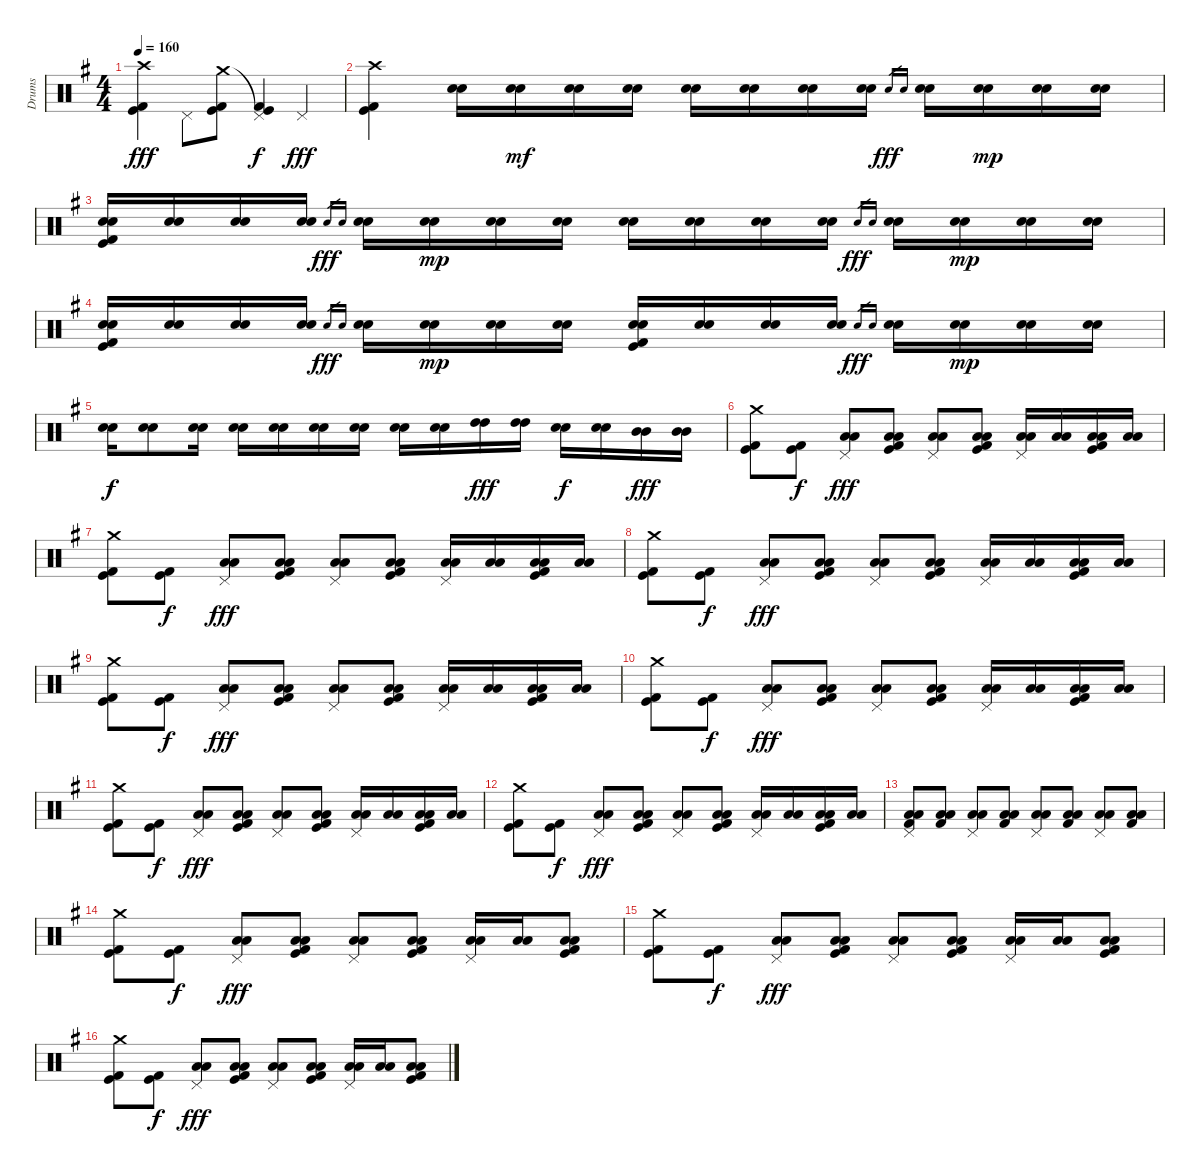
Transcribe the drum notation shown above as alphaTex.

\track ("Drums" "Drums") {instrument percussion}
\staff {score}
\articulation defaults
\ts (4 4)
\tempo 160
\clef neutral
\ks g
("Crash high (hit)" "Kick (hit)" "Kick (hit) 2").4{dy fff} "Pedal Hi-Hat (hit)".8 ("Crash medium (hit)" "Kick (hit)" "Kick (hit) 2").8 ("Pedal Hi-Hat (hit)"{t} "Kick (hit)" "Kick (hit) 2").4{dy f} "Pedal Hi-Hat (hit)".4{dy fff} |
("Crash high (hit)" "Kick (hit)" "Kick (hit) 2").4 ("Electric Snare (hit)" "Snare (hit) 2").16 ("Electric Snare (hit)" "Snare (hit) 2").16{dy mf} ("Electric Snare (hit)" "Snare (hit) 2").16 ("Electric Snare (hit)" "Snare (hit) 2").16 ("Electric Snare (hit)" "Snare (hit) 2").16 ("Electric Snare (hit)" "Snare (hit) 2").16 ("Electric Snare (hit)" "Snare (hit) 2").16 ("Electric Snare (hit)" "Snare (hit) 2").16 "Electric Snare (hit)".16{gr dy fff} "Snare (hit) 2".16{gr} ("Electric Snare (hit)" "Snare (hit) 2").16 ("Electric Snare (hit)" "Snare (hit) 2").16{dy mp} ("Electric Snare (hit)" "Snare (hit) 2").16 ("Electric Snare (hit)" "Snare (hit) 2").16 |
("Electric Snare (hit)" "Snare (hit) 2" "Kick (hit)" "Kick (hit) 2").16 ("Electric Snare (hit)" "Snare (hit) 2").16 ("Electric Snare (hit)" "Snare (hit) 2").16 ("Electric Snare (hit)" "Snare (hit) 2").16 "Electric Snare (hit)".16{gr dy fff} "Snare (hit) 2".16{gr} ("Electric Snare (hit)" "Snare (hit) 2").16 ("Electric Snare (hit)" "Snare (hit) 2").16{dy mp} ("Electric Snare (hit)" "Snare (hit) 2").16 ("Electric Snare (hit)" "Snare (hit) 2").16 ("Electric Snare (hit)" "Snare (hit) 2").16 ("Electric Snare (hit)" "Snare (hit) 2").16 ("Electric Snare (hit)" "Snare (hit) 2").16 ("Electric Snare (hit)" "Snare (hit) 2").16 "Electric Snare (hit)".16{gr dy fff} "Snare (hit) 2".16{gr} ("Electric Snare (hit)" "Snare (hit) 2").16 ("Electric Snare (hit)" "Snare (hit) 2").16{dy mp} ("Electric Snare (hit)" "Snare (hit) 2").16 ("Electric Snare (hit)" "Snare (hit) 2").16 |
("Electric Snare (hit)" "Snare (hit) 2" "Kick (hit)" "Kick (hit) 2").16 ("Electric Snare (hit)" "Snare (hit) 2").16 ("Electric Snare (hit)" "Snare (hit) 2").16 ("Electric Snare (hit)" "Snare (hit) 2").16 "Electric Snare (hit)".16{gr dy fff} "Snare (hit) 2".16{gr} ("Electric Snare (hit)" "Snare (hit) 2").16 ("Electric Snare (hit)" "Snare (hit) 2").16{dy mp} ("Electric Snare (hit)" "Snare (hit) 2").16 ("Electric Snare (hit)" "Snare (hit) 2").16 ("Electric Snare (hit)" "Snare (hit) 2" "Kick (hit)" "Kick (hit) 2").16 ("Electric Snare (hit)" "Snare (hit) 2").16 ("Electric Snare (hit)" "Snare (hit) 2").16 ("Electric Snare (hit)" "Snare (hit) 2").16 "Electric Snare (hit)".16{gr dy fff} "Snare (hit) 2".16{gr} ("Electric Snare (hit)" "Snare (hit) 2").16 ("Electric Snare (hit)" "Snare (hit) 2").16{dy mp} ("Electric Snare (hit)" "Snare (hit) 2").16 ("Electric Snare (hit)" "Snare (hit) 2").16 |
("Electric Snare (hit)" "Snare (hit) 2").16{dy f} ("Electric Snare (hit)" "Snare (hit) 2").8 ("Electric Snare (hit)" "Snare (hit) 2").16 ("Electric Snare (hit)" "Snare (hit) 2").16 ("Electric Snare (hit)" "Snare (hit) 2").16 ("Electric Snare (hit)" "Snare (hit) 2").16 ("Electric Snare (hit)" "Snare (hit) 2").16 ("Electric Snare (hit)" "Snare (hit) 2").16 ("Electric Snare (hit)" "Snare (hit) 2").16 ("High Tom (hit)" "High Tom (hit)").16{dy fff} ("High Tom (hit)" "High Tom (hit)").16 ("Electric Snare (hit)" "Snare (hit) 2").16{dy f} ("Electric Snare (hit)" "Snare (hit) 2").16 ("Mid Tom (hit)" "Mid Tom (hit)").16{dy fff} ("Mid Tom (hit)" "Mid Tom (hit)").16 |
("Crash medium (hit)" "Kick (hit)" "Kick (hit) 2").8 ("Kick (hit)" "Kick (hit) 2").8{dy f} ("Pedal Hi-Hat (hit)" "Low Tom (hit)" "Low Tom (hit)").8{dy fff} ("Low Tom (hit)" "Low Tom (hit)" "Kick (hit)" "Kick (hit) 2").8 ("Pedal Hi-Hat (hit)" "Low Tom (hit)" "Low Tom (hit)").8 ("Low Tom (hit)" "Low Tom (hit)" "Kick (hit)" "Kick (hit) 2").8 ("Pedal Hi-Hat (hit)" "Low Tom (hit)" "Low Tom (hit)").16 ("Low Tom (hit)" "Low Tom (hit)").16 ("Low Tom (hit)" "Low Tom (hit)" "Kick (hit)" "Kick (hit) 2").16 ("Low Tom (hit)" "Low Tom (hit)").16 |
("Crash medium (hit)" "Kick (hit)" "Kick (hit) 2").8 ("Kick (hit)" "Kick (hit) 2").8{dy f} ("Pedal Hi-Hat (hit)" "Low Tom (hit)" "Low Tom (hit)").8{dy fff} ("Low Tom (hit)" "Low Tom (hit)" "Kick (hit)" "Kick (hit) 2").8 ("Pedal Hi-Hat (hit)" "Low Tom (hit)" "Low Tom (hit)").8 ("Low Tom (hit)" "Low Tom (hit)" "Kick (hit)" "Kick (hit) 2").8 ("Pedal Hi-Hat (hit)" "Low Tom (hit)" "Low Tom (hit)").16 ("Low Tom (hit)" "Low Tom (hit)").16 ("Low Tom (hit)" "Low Tom (hit)" "Kick (hit)" "Kick (hit) 2").16 ("Low Tom (hit)" "Low Tom (hit)").16 |
("Crash medium (hit)" "Kick (hit)" "Kick (hit) 2").8 ("Kick (hit)" "Kick (hit) 2").8{dy f} ("Pedal Hi-Hat (hit)" "Low Tom (hit)" "Low Tom (hit)").8{dy fff} ("Low Tom (hit)" "Low Tom (hit)" "Kick (hit)" "Kick (hit) 2").8 ("Pedal Hi-Hat (hit)" "Low Tom (hit)" "Low Tom (hit)").8 ("Low Tom (hit)" "Low Tom (hit)" "Kick (hit)" "Kick (hit) 2").8 ("Pedal Hi-Hat (hit)" "Low Tom (hit)" "Low Tom (hit)").16 ("Low Tom (hit)" "Low Tom (hit)").16 ("Low Tom (hit)" "Low Tom (hit)" "Kick (hit)" "Kick (hit) 2").16 ("Low Tom (hit)" "Low Tom (hit)").16 |
("Crash medium (hit)" "Kick (hit)" "Kick (hit) 2").8 ("Kick (hit)" "Kick (hit) 2").8{dy f} ("Pedal Hi-Hat (hit)" "Low Tom (hit)" "Low Tom (hit)").8{dy fff} ("Low Tom (hit)" "Low Tom (hit)" "Kick (hit)" "Kick (hit) 2").8 ("Pedal Hi-Hat (hit)" "Low Tom (hit)" "Low Tom (hit)").8 ("Low Tom (hit)" "Low Tom (hit)" "Kick (hit)" "Kick (hit) 2").8 ("Pedal Hi-Hat (hit)" "Low Tom (hit)" "Low Tom (hit)").16 ("Low Tom (hit)" "Low Tom (hit)").16 ("Low Tom (hit)" "Low Tom (hit)" "Kick (hit)" "Kick (hit) 2").16 ("Low Tom (hit)" "Low Tom (hit)").16 |
("Crash medium (hit)" "Kick (hit)" "Kick (hit) 2").8 ("Kick (hit)" "Kick (hit) 2").8{dy f} ("Pedal Hi-Hat (hit)" "Low Tom (hit)" "Low Tom (hit)").8{dy fff} ("Low Tom (hit)" "Low Tom (hit)" "Kick (hit)" "Kick (hit) 2").8 ("Pedal Hi-Hat (hit)" "Low Tom (hit)" "Low Tom (hit)").8 ("Low Tom (hit)" "Low Tom (hit)" "Kick (hit)" "Kick (hit) 2").8 ("Pedal Hi-Hat (hit)" "Low Tom (hit)" "Low Tom (hit)").16 ("Low Tom (hit)" "Low Tom (hit)").16 ("Low Tom (hit)" "Low Tom (hit)" "Kick (hit)" "Kick (hit) 2").16 ("Low Tom (hit)" "Low Tom (hit)").16 |
("Crash medium (hit)" "Kick (hit)" "Kick (hit) 2").8 ("Kick (hit)" "Kick (hit) 2").8{dy f} ("Pedal Hi-Hat (hit)" "Low Tom (hit)" "Low Tom (hit)").8{dy fff} ("Low Tom (hit)" "Low Tom (hit)" "Kick (hit)" "Kick (hit) 2").8 ("Pedal Hi-Hat (hit)" "Low Tom (hit)" "Low Tom (hit)").8 ("Low Tom (hit)" "Low Tom (hit)" "Kick (hit)" "Kick (hit) 2").8 ("Pedal Hi-Hat (hit)" "Low Tom (hit)" "Low Tom (hit)").16 ("Low Tom (hit)" "Low Tom (hit)").16 ("Low Tom (hit)" "Low Tom (hit)" "Kick (hit)" "Kick (hit) 2").16 ("Low Tom (hit)" "Low Tom (hit)").16 |
("Crash medium (hit)" "Kick (hit)" "Kick (hit) 2").8 ("Kick (hit)" "Kick (hit) 2").8{dy f} ("Pedal Hi-Hat (hit)" "Low Tom (hit)" "Low Tom (hit)").8{dy fff} ("Low Tom (hit)" "Low Tom (hit)" "Kick (hit)" "Kick (hit) 2").8 ("Pedal Hi-Hat (hit)" "Low Tom (hit)" "Low Tom (hit)").8 ("Low Tom (hit)" "Low Tom (hit)" "Kick (hit)" "Kick (hit) 2").8 ("Pedal Hi-Hat (hit)" "Low Tom (hit)" "Low Tom (hit)").16 ("Low Tom (hit)" "Low Tom (hit)").16 ("Low Tom (hit)" "Low Tom (hit)" "Kick (hit)" "Kick (hit) 2").16 ("Low Tom (hit)" "Low Tom (hit)").16 |
("Pedal Hi-Hat (hit)" "Low Tom (hit)" "Low Tom (hit)" "Kick (hit) 2").8 ("Low Tom (hit)" "Low Tom (hit)" "Kick (hit) 2").8 ("Pedal Hi-Hat (hit)" "Low Tom (hit)" "Low Tom (hit)").8 ("Low Tom (hit)" "Low Tom (hit)" "Kick (hit) 2").8 ("Pedal Hi-Hat (hit)" "Low Tom (hit)" "Low Tom (hit)").8 ("Low Tom (hit)" "Low Tom (hit)" "Kick (hit) 2").8 ("Pedal Hi-Hat (hit)" "Low Tom (hit)" "Low Tom (hit)").8 ("Low Tom (hit)" "Low Tom (hit)" "Kick (hit) 2").8 |
("Crash medium (hit)" "Kick (hit)" "Kick (hit) 2").8 ("Kick (hit)" "Kick (hit) 2").8{dy f} ("Pedal Hi-Hat (hit)" "Low Tom (hit)" "Low Tom (hit)").8{dy fff} ("Low Tom (hit)" "Low Tom (hit)" "Kick (hit)" "Kick (hit) 2").8 ("Pedal Hi-Hat (hit)" "Low Tom (hit)" "Low Tom (hit)").8 ("Low Tom (hit)" "Low Tom (hit)" "Kick (hit)" "Kick (hit) 2").8 ("Pedal Hi-Hat (hit)" "Low Tom (hit)" "Low Tom (hit)").16 ("Low Tom (hit)" "Low Tom (hit)").16 ("Low Tom (hit)" "Low Tom (hit)" "Kick (hit)" "Kick (hit) 2").8 |
("Crash medium (hit)" "Kick (hit)" "Kick (hit) 2").8 ("Kick (hit)" "Kick (hit) 2").8{dy f} ("Pedal Hi-Hat (hit)" "Low Tom (hit)" "Low Tom (hit)").8{dy fff} ("Low Tom (hit)" "Low Tom (hit)" "Kick (hit)" "Kick (hit) 2").8 ("Pedal Hi-Hat (hit)" "Low Tom (hit)" "Low Tom (hit)").8 ("Low Tom (hit)" "Low Tom (hit)" "Kick (hit)" "Kick (hit) 2").8 ("Pedal Hi-Hat (hit)" "Low Tom (hit)" "Low Tom (hit)").16 ("Low Tom (hit)" "Low Tom (hit)").16 ("Low Tom (hit)" "Low Tom (hit)" "Kick (hit)" "Kick (hit) 2").8 |
("Crash medium (hit)" "Kick (hit)" "Kick (hit) 2").8 ("Kick (hit)" "Kick (hit) 2").8{dy f} ("Pedal Hi-Hat (hit)" "Low Tom (hit)" "Low Tom (hit)").8{dy fff} ("Low Tom (hit)" "Low Tom (hit)" "Kick (hit)" "Kick (hit) 2").8 ("Pedal Hi-Hat (hit)" "Low Tom (hit)" "Low Tom (hit)").8 ("Low Tom (hit)" "Low Tom (hit)" "Kick (hit)" "Kick (hit) 2").8 ("Pedal Hi-Hat (hit)" "Low Tom (hit)" "Low Tom (hit)").16 ("Low Tom (hit)" "Low Tom (hit)").16 ("Low Tom (hit)" "Low Tom (hit)" "Kick (hit)" "Kick (hit) 2").8
